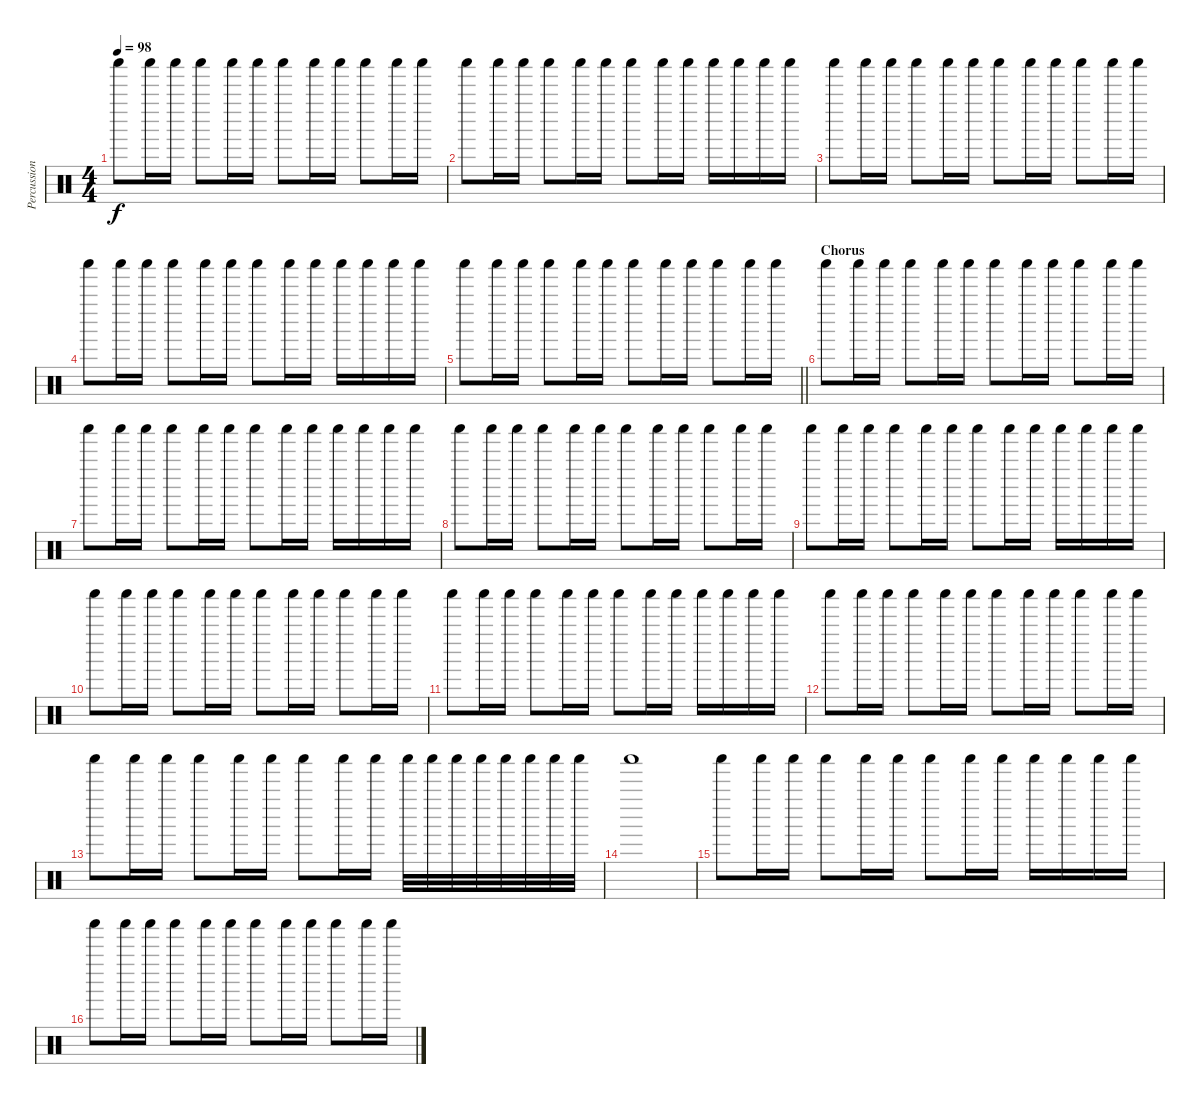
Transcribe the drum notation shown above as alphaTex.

\track ("Percussion" "Percussion") {instrument percussion}
\staff {score}
\articulation defaults
\ts (4 4)
\tempo 98
\clef neutral
\ks c "Shaker (hit)".8{dy f} "Shaker (hit)".16 "Shaker (hit)".16 "Shaker (hit)".8 "Shaker (hit)".16 "Shaker (hit)".16 "Shaker (hit)".8 "Shaker (hit)".16 "Shaker (hit)".16 "Shaker (hit)".8 "Shaker (hit)".16 "Shaker (hit)".16
|
"Shaker (hit)".8 "Shaker (hit)".16 "Shaker (hit)".16 "Shaker (hit)".8 "Shaker (hit)".16 "Shaker (hit)".16 "Shaker (hit)".8 "Shaker (hit)".16 "Shaker (hit)".16 "Shaker (hit)".16 "Shaker (hit)".16 "Shaker (hit)".16 "Shaker (hit)".16 |
"Shaker (hit)".8 "Shaker (hit)".16 "Shaker (hit)".16 "Shaker (hit)".8 "Shaker (hit)".16 "Shaker (hit)".16 "Shaker (hit)".8 "Shaker (hit)".16 "Shaker (hit)".16 "Shaker (hit)".8 "Shaker (hit)".16 "Shaker (hit)".16 |
"Shaker (hit)".8 "Shaker (hit)".16 "Shaker (hit)".16 "Shaker (hit)".8 "Shaker (hit)".16 "Shaker (hit)".16 "Shaker (hit)".8 "Shaker (hit)".16 "Shaker (hit)".16 "Shaker (hit)".16 "Shaker (hit)".16 "Shaker (hit)".16 "Shaker (hit)".16 |
\barLineRight lightlight "Shaker (hit)".8 "Shaker (hit)".16 "Shaker (hit)".16 "Shaker (hit)".8 "Shaker (hit)".16 "Shaker (hit)".16 "Shaker (hit)".8 "Shaker (hit)".16 "Shaker (hit)".16 "Shaker (hit)".8 "Shaker (hit)".16 "Shaker (hit)".16
|
\section ("" "Chorus")
"Shaker (hit)".8 "Shaker (hit)".16 "Shaker (hit)".16 "Shaker (hit)".8 "Shaker (hit)".16 "Shaker (hit)".16 "Shaker (hit)".8 "Shaker (hit)".16 "Shaker (hit)".16 "Shaker (hit)".8 "Shaker (hit)".16 "Shaker (hit)".16 |
"Shaker (hit)".8 "Shaker (hit)".16 "Shaker (hit)".16 "Shaker (hit)".8 "Shaker (hit)".16 "Shaker (hit)".16 "Shaker (hit)".8 "Shaker (hit)".16 "Shaker (hit)".16 "Shaker (hit)".16 "Shaker (hit)".16 "Shaker (hit)".16 "Shaker (hit)".16 |
"Shaker (hit)".8 "Shaker (hit)".16 "Shaker (hit)".16 "Shaker (hit)".8 "Shaker (hit)".16 "Shaker (hit)".16 "Shaker (hit)".8 "Shaker (hit)".16 "Shaker (hit)".16 "Shaker (hit)".8 "Shaker (hit)".16 "Shaker (hit)".16 |
"Shaker (hit)".8 "Shaker (hit)".16 "Shaker (hit)".16 "Shaker (hit)".8 "Shaker (hit)".16 "Shaker (hit)".16 "Shaker (hit)".8 "Shaker (hit)".16 "Shaker (hit)".16 "Shaker (hit)".16 "Shaker (hit)".16 "Shaker (hit)".16 "Shaker (hit)".16 |
"Shaker (hit)".8 "Shaker (hit)".16 "Shaker (hit)".16 "Shaker (hit)".8 "Shaker (hit)".16 "Shaker (hit)".16 "Shaker (hit)".8 "Shaker (hit)".16 "Shaker (hit)".16 "Shaker (hit)".8 "Shaker (hit)".16 "Shaker (hit)".16 |
"Shaker (hit)".8 "Shaker (hit)".16 "Shaker (hit)".16 "Shaker (hit)".8 "Shaker (hit)".16 "Shaker (hit)".16 "Shaker (hit)".8 "Shaker (hit)".16 "Shaker (hit)".16 "Shaker (hit)".16 "Shaker (hit)".16 "Shaker (hit)".16 "Shaker (hit)".16 |
"Shaker (hit)".8 "Shaker (hit)".16 "Shaker (hit)".16 "Shaker (hit)".8 "Shaker (hit)".16 "Shaker (hit)".16 "Shaker (hit)".8 "Shaker (hit)".16 "Shaker (hit)".16 "Shaker (hit)".8 "Shaker (hit)".16 "Shaker (hit)".16 |
"Shaker (hit)".8 "Shaker (hit)".16 "Shaker (hit)".16 "Shaker (hit)".8 "Shaker (hit)".16 "Shaker (hit)".16 "Shaker (hit)".8 "Shaker (hit)".16 "Shaker (hit)".16 "Shaker (hit)".32 "Shaker (hit)".32 "Shaker (hit)".32 "Shaker (hit)".32 "Shaker (hit)".32 "Shaker (hit)".32 "Shaker (hit)".32 "Shaker (hit)".32 |
"Shaker (hit)".1 |
"Shaker (hit)".8 "Shaker (hit)".16 "Shaker (hit)".16 "Shaker (hit)".8 "Shaker (hit)".16 "Shaker (hit)".16 "Shaker (hit)".8 "Shaker (hit)".16 "Shaker (hit)".16 "Shaker (hit)".16 "Shaker (hit)".16 "Shaker (hit)".16 "Shaker (hit)".16 |
"Shaker (hit)".8 "Shaker (hit)".16 "Shaker (hit)".16 "Shaker (hit)".8 "Shaker (hit)".16 "Shaker (hit)".16 "Shaker (hit)".8 "Shaker (hit)".16 "Shaker (hit)".16 "Shaker (hit)".8 "Shaker (hit)".16 "Shaker (hit)".16
